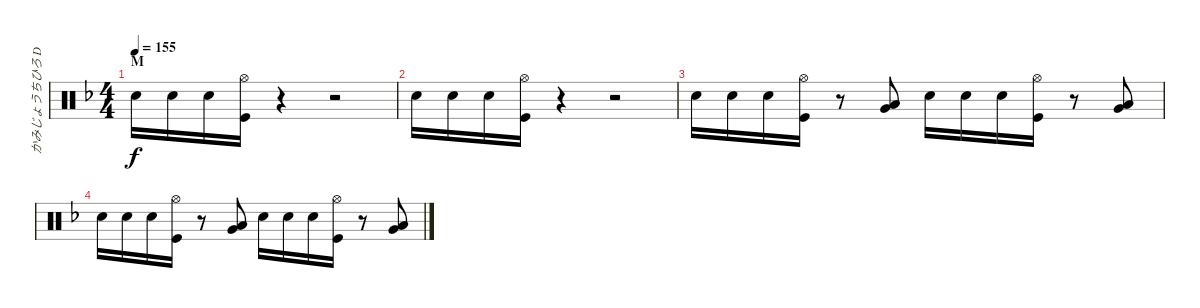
\track ("かみじょうちひろ DRUMS" "かみじょうちひろ D") {instrument percussion}
\staff {score}
\articulation defaults
\ts (4 4)
\section ("" "M")
\tempo 155
\clef neutral
\ks f "Snare (hit) 2".16{dy f} "Snare (hit) 2".16 "Snare (hit) 2".16
("Hi-Hat (open)" "Kick (hit)").16 r.4 r.2 |
"Snare (hit) 2".16 "Snare (hit) 2".16 "Snare (hit) 2".16 ("Hi-Hat (open)" "Kick (hit)").16 r.4 r.2 |
"Snare (hit) 2".16 "Snare (hit) 2".16 "Snare (hit) 2".16 ("Hi-Hat (open)" "Kick (hit)").16 r.8 ("Low Tom (hit)" "Very Low Tom (hit)").8 "Snare (hit) 2".16 "Snare (hit) 2".16 "Snare (hit) 2".16 ("Hi-Hat (open)" "Kick (hit)").16 r.8 ("Low Tom (hit)" "Very Low Tom (hit)").8 |
"Snare (hit) 2".16 "Snare (hit) 2".16 "Snare (hit) 2".16 ("Hi-Hat (open)" "Kick (hit)").16 r.8 ("Low Tom (hit)" "Very Low Tom (hit)").8 "Snare (hit) 2".16 "Snare (hit) 2".16 "Snare (hit) 2".16 ("Hi-Hat (open)" "Kick (hit)").16 r.8 ("Low Tom (hit)" "Very Low Tom (hit)").8
